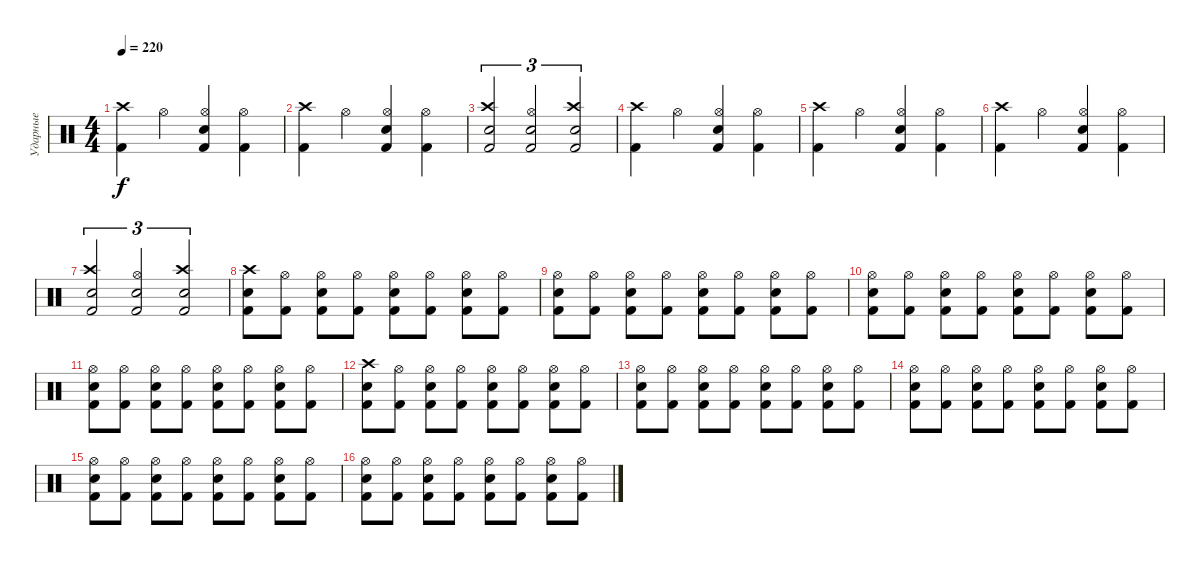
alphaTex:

\track ("Ударные" "Ударные") {instrument percussion}
\staff
\articulation defaults
\ts (4 4)
\tempo 220
\clef neutral
\ks c
("Kick (hit) 2" "Crash high (hit)").4{dy f} "Hi-Hat (open)".4 ("Kick (hit) 2" "Snare (hit) 2" "Hi-Hat (open)").4 ("Kick (hit) 2" "Hi-Hat (open)").4 |
("Kick (hit) 2" "Crash high (hit)").4 "Hi-Hat (open)".4 ("Kick (hit) 2" "Snare (hit) 2" "Hi-Hat (open)").4 ("Kick (hit) 2" "Hi-Hat (open)").4 |
("Kick (hit) 2" "Snare (hit) 2" "Crash high (hit)").2{tu (3 2)} ("Kick (hit) 2" "Snare (hit) 2" "Hi-Hat (open)").2{tu (3 2)} ("Kick (hit) 2" "Snare (hit) 2" "Crash high (hit)").2{tu (3 2)} |
("Kick (hit) 2" "Crash high (hit)").4 "Hi-Hat (open)".4 ("Kick (hit) 2" "Snare (hit) 2" "Hi-Hat (open)").4 ("Kick (hit) 2" "Hi-Hat (open)").4 |
("Kick (hit) 2" "Crash high (hit)").4 "Hi-Hat (open)".4 ("Kick (hit) 2" "Snare (hit) 2" "Hi-Hat (open)").4 ("Kick (hit) 2" "Hi-Hat (open)").4 |
("Kick (hit) 2" "Crash high (hit)").4 "Hi-Hat (open)".4 ("Kick (hit) 2" "Snare (hit) 2" "Hi-Hat (open)").4 ("Kick (hit) 2" "Hi-Hat (open)").4 |
("Kick (hit) 2" "Snare (hit) 2" "Crash high (hit)").2{tu (3 2)} ("Kick (hit) 2" "Snare (hit) 2" "Hi-Hat (open)").2{tu (3 2)} ("Kick (hit) 2" "Snare (hit) 2" "Crash high (hit)").2{tu (3 2)} |
("Kick (hit) 2" "Snare (hit) 2" "Crash high (hit)").8 ("Kick (hit) 2" "Hi-Hat (open)").8 ("Kick (hit) 2" "Snare (hit) 2" "Hi-Hat (open)").8 ("Kick (hit) 2" "Hi-Hat (open)").8 ("Kick (hit) 2" "Snare (hit) 2" "Hi-Hat (open)").8 ("Kick (hit) 2" "Hi-Hat (open)").8 ("Kick (hit) 2" "Snare (hit) 2" "Hi-Hat (open)").8 ("Kick (hit) 2" "Hi-Hat (open)").8 |
("Kick (hit) 2" "Snare (hit) 2" "Hi-Hat (open)").8 ("Kick (hit) 2" "Hi-Hat (open)").8 ("Kick (hit) 2" "Snare (hit) 2" "Hi-Hat (open)").8 ("Kick (hit) 2" "Hi-Hat (open)").8 ("Kick (hit) 2" "Snare (hit) 2" "Hi-Hat (open)").8 ("Kick (hit) 2" "Hi-Hat (open)").8 ("Kick (hit) 2" "Snare (hit) 2" "Hi-Hat (open)").8 ("Kick (hit) 2" "Hi-Hat (open)").8 |
("Kick (hit) 2" "Snare (hit) 2" "Hi-Hat (open)").8 ("Kick (hit) 2" "Hi-Hat (open)").8 ("Kick (hit) 2" "Snare (hit) 2" "Hi-Hat (open)").8 ("Kick (hit) 2" "Hi-Hat (open)").8 ("Kick (hit) 2" "Snare (hit) 2" "Hi-Hat (open)").8 ("Kick (hit) 2" "Hi-Hat (open)").8 ("Kick (hit) 2" "Snare (hit) 2" "Hi-Hat (open)").8 ("Kick (hit) 2" "Hi-Hat (open)").8 |
("Kick (hit) 2" "Snare (hit) 2" "Hi-Hat (open)").8 ("Kick (hit) 2" "Hi-Hat (open)").8 ("Kick (hit) 2" "Snare (hit) 2" "Hi-Hat (open)").8 ("Kick (hit) 2" "Hi-Hat (open)").8 ("Kick (hit) 2" "Snare (hit) 2" "Hi-Hat (open)").8 ("Kick (hit) 2" "Hi-Hat (open)").8 ("Kick (hit) 2" "Snare (hit) 2" "Hi-Hat (open)").8 ("Kick (hit) 2" "Hi-Hat (open)").8 |
("Kick (hit) 2" "Snare (hit) 2" "Crash high (hit)").8 ("Kick (hit) 2" "Hi-Hat (open)").8 ("Kick (hit) 2" "Snare (hit) 2" "Hi-Hat (open)").8 ("Kick (hit) 2" "Hi-Hat (open)").8 ("Kick (hit) 2" "Snare (hit) 2" "Hi-Hat (open)").8 ("Kick (hit) 2" "Hi-Hat (open)").8 ("Kick (hit) 2" "Snare (hit) 2" "Hi-Hat (open)").8 ("Kick (hit) 2" "Hi-Hat (open)").8 |
("Kick (hit) 2" "Snare (hit) 2" "Hi-Hat (open)").8 ("Kick (hit) 2" "Hi-Hat (open)").8 ("Kick (hit) 2" "Snare (hit) 2" "Hi-Hat (open)").8 ("Kick (hit) 2" "Hi-Hat (open)").8 ("Kick (hit) 2" "Snare (hit) 2" "Hi-Hat (open)").8 ("Kick (hit) 2" "Hi-Hat (open)").8 ("Kick (hit) 2" "Snare (hit) 2" "Hi-Hat (open)").8 ("Kick (hit) 2" "Hi-Hat (open)").8 |
("Kick (hit) 2" "Snare (hit) 2" "Hi-Hat (open)").8 ("Kick (hit) 2" "Hi-Hat (open)").8 ("Kick (hit) 2" "Snare (hit) 2" "Hi-Hat (open)").8 ("Kick (hit) 2" "Hi-Hat (open)").8 ("Kick (hit) 2" "Snare (hit) 2" "Hi-Hat (open)").8 ("Kick (hit) 2" "Hi-Hat (open)").8 ("Kick (hit) 2" "Snare (hit) 2" "Hi-Hat (open)").8 ("Kick (hit) 2" "Hi-Hat (open)").8 |
("Kick (hit) 2" "Snare (hit) 2" "Hi-Hat (open)").8 ("Kick (hit) 2" "Hi-Hat (open)").8 ("Kick (hit) 2" "Snare (hit) 2" "Hi-Hat (open)").8 ("Kick (hit) 2" "Hi-Hat (open)").8 ("Kick (hit) 2" "Snare (hit) 2" "Hi-Hat (open)").8 ("Kick (hit) 2" "Hi-Hat (open)").8 ("Kick (hit) 2" "Snare (hit) 2" "Hi-Hat (open)").8 ("Kick (hit) 2" "Hi-Hat (open)").8 |
("Kick (hit) 2" "Snare (hit) 2" "Hi-Hat (open)").8 ("Kick (hit) 2" "Hi-Hat (open)").8 ("Kick (hit) 2" "Snare (hit) 2" "Hi-Hat (open)").8 ("Kick (hit) 2" "Hi-Hat (open)").8 ("Kick (hit) 2" "Snare (hit) 2" "Hi-Hat (open)").8 ("Kick (hit) 2" "Hi-Hat (open)").8 ("Kick (hit) 2" "Snare (hit) 2" "Hi-Hat (open)").8 ("Kick (hit) 2" "Hi-Hat (open)").8
